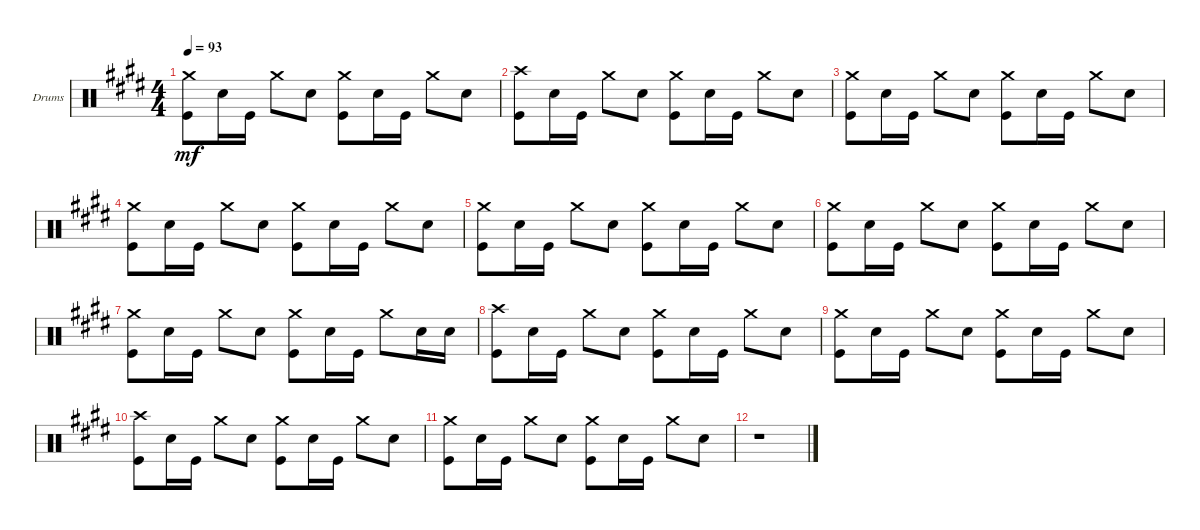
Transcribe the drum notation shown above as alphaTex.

\defaultSystemsLayout 4
\bracketExtendMode groupsimilarinstruments
\firstSystemTrackNameOrientation horizontal
\otherSystemsTrackNameOrientation horizontal
\track ("Drumkit" "Drums") {instrument percussion}
\staff {score}
\articulation defaults
\ts (4 4)
\tempo 93
\clef neutral
\ks e
("Kick (hit)" "Crash medium (hit)").8{dy mf} "Snare (hit) 2".16 "Kick (hit)".16 "Crash medium (hit)".8 "Snare (hit) 2".8 ("Kick (hit)" "Crash medium (hit)").8 "Snare (hit) 2".16 "Kick (hit)".16 "Crash medium (hit)".8 "Snare (hit) 2".8 |
("Crash high (hit)" "Kick (hit)").8 "Snare (hit) 2".16 "Kick (hit)".16 "Crash medium (hit)".8 "Snare (hit) 2".8 ("Kick (hit)" "Crash medium (hit)").8 "Snare (hit) 2".16 "Kick (hit)".16 "Crash medium (hit)".8 "Snare (hit) 2".8 |
("Kick (hit)" "Crash medium (hit)").8 "Snare (hit) 2".16 "Kick (hit)".16 "Crash medium (hit)".8 "Snare (hit) 2".8 ("Kick (hit)" "Crash medium (hit)").8 "Snare (hit) 2".16 "Kick (hit)".16 "Crash medium (hit)".8 "Snare (hit) 2".8 |
("Kick (hit)" "Crash medium (hit)").8 "Snare (hit) 2".16 "Kick (hit)".16 "Crash medium (hit)".8 "Snare (hit) 2".8 ("Kick (hit)" "Crash medium (hit)").8 "Snare (hit) 2".16 "Kick (hit)".16 "Crash medium (hit)".8 "Snare (hit) 2".8 |
("Kick (hit)" "Crash medium (hit)").8 "Snare (hit) 2".16 "Kick (hit)".16 "Crash medium (hit)".8 "Snare (hit) 2".8 ("Kick (hit)" "Crash medium (hit)").8 "Snare (hit) 2".16 "Kick (hit)".16 "Crash medium (hit)".8 "Snare (hit) 2".8 |
("Kick (hit)" "Crash medium (hit)").8 "Snare (hit) 2".16 "Kick (hit)".16 "Crash medium (hit)".8 "Snare (hit) 2".8 ("Kick (hit)" "Crash medium (hit)").8 "Snare (hit) 2".16 "Kick (hit)".16 "Crash medium (hit)".8 "Snare (hit) 2".8 |
("Kick (hit)" "Crash medium (hit)").8 "Snare (hit) 2".16 "Kick (hit)".16 "Crash medium (hit)".8 "Snare (hit) 2".8 ("Kick (hit)" "Crash medium (hit)").8 "Snare (hit) 2".16 "Kick (hit)".16 "Crash medium (hit)".8 "Snare (hit) 2".16 "Snare (hit) 2".16 |
("Crash high (hit)" "Kick (hit)").8 "Snare (hit) 2".16 "Kick (hit)".16 "Crash medium (hit)".8 "Snare (hit) 2".8 ("Kick (hit)" "Crash medium (hit)").8 "Snare (hit) 2".16 "Kick (hit)".16 "Crash medium (hit)".8 "Snare (hit) 2".8 |
("Kick (hit)" "Crash medium (hit)").8 "Snare (hit) 2".16 "Kick (hit)".16 "Crash medium (hit)".8 "Snare (hit) 2".8 ("Kick (hit)" "Crash medium (hit)").8 "Snare (hit) 2".16 "Kick (hit)".16 "Crash medium (hit)".8 "Snare (hit) 2".8 |
("Crash high (hit)" "Kick (hit)").8 "Snare (hit) 2".16 "Kick (hit)".16 "Crash medium (hit)".8 "Snare (hit) 2".8 ("Kick (hit)" "Crash medium (hit)").8 "Snare (hit) 2".16 "Kick (hit)".16 "Crash medium (hit)".8 "Snare (hit) 2".8 |
("Kick (hit)" "Crash medium (hit)").8 "Snare (hit) 2".16 "Kick (hit)".16 "Crash medium (hit)".8 "Snare (hit) 2".8 ("Kick (hit)" "Crash medium (hit)").8 "Snare (hit) 2".16 "Kick (hit)".16 "Crash medium (hit)".8 "Snare (hit) 2".8 |
r.1
